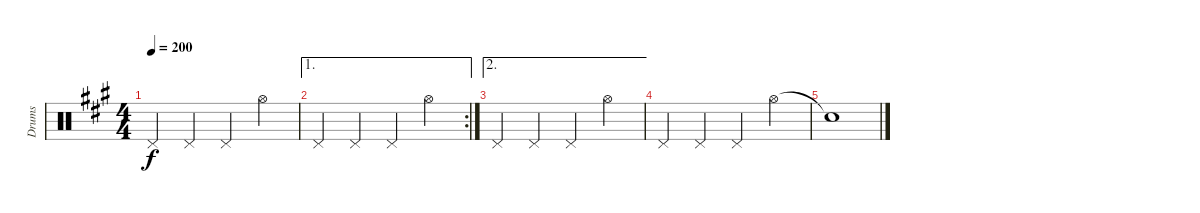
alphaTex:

\track ("Drums" "Drums") {instrument percussion}
\staff {score}
\articulation defaults
\ts (4 4)
\tempo 200
\clef neutral
\ks a "Pedal Hi-Hat (hit)".4{dy f} "Pedal Hi-Hat (hit)".4 "Pedal Hi-Hat (hit)".4 "Hi-Hat (open)".4
|
\ae 1
\rc 2 "Pedal Hi-Hat (hit)".4 "Pedal Hi-Hat (hit)".4 "Pedal Hi-Hat (hit)".4 "Hi-Hat (open)".4
|
\ae 2 "Pedal Hi-Hat (hit)".4 "Pedal Hi-Hat (hit)".4 "Pedal Hi-Hat (hit)".4 "Hi-Hat (open)".4
|
"Pedal Hi-Hat (hit)".4 "Pedal Hi-Hat (hit)".4 "Pedal Hi-Hat (hit)".4 "Hi-Hat (open)".4 |
"Snare (hit)"{t}.1
